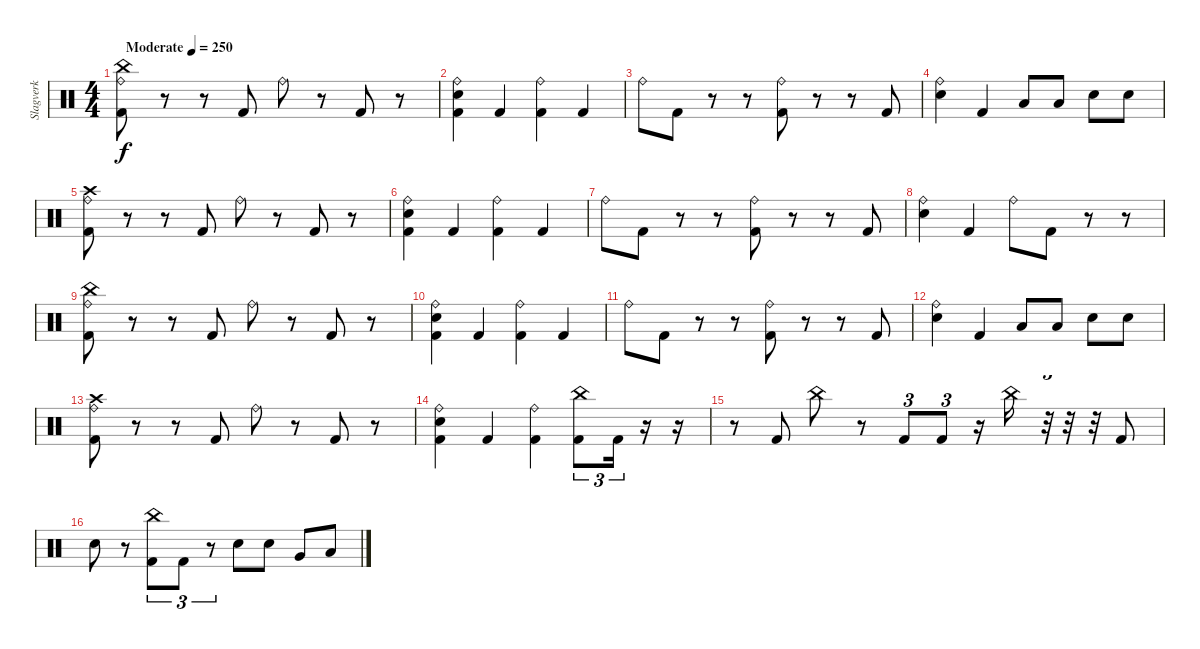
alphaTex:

\track ("Slagverk" "Slagverk") {instrument percussion}
\staff {score}
\articulation defaults
\ts (4 4)
\tempo (250 "Moderate")
\clef neutral
\ks c
("China (hit)" "Ride (bell)" "Kick (hit) 2").8{dy f} r.8 r.8 "Kick (hit) 2".8 "Ride (bell)".8 r.8 "Kick (hit) 2".8 r.8 |
("Ride (bell)" "Electric Snare (hit)" "Kick (hit) 2").4 "Kick (hit) 2".4 ("Ride (bell)" "Kick (hit) 2").4 "Kick (hit) 2".4 |
"Ride (bell)".8 "Kick (hit) 2".8 r.8 r.8 ("Ride (bell)" "Kick (hit) 2").8 r.8 r.8 "Kick (hit) 2".8 |
("Ride (bell)" "Electric Snare (hit)").4 "Kick (hit) 2".4 "Low Floor Tom (hit)".8 "Low Floor Tom (hit)".8 "Electric Snare (hit)".8 "Electric Snare (hit)".8 |
("Crash high (hit)" "Ride (bell)" "Kick (hit) 2").8 r.8 r.8 "Kick (hit) 2".8 "Ride (bell)".8 r.8 "Kick (hit) 2".8 r.8 |
("Ride (bell)" "Electric Snare (hit)" "Kick (hit) 2").4 "Kick (hit) 2".4 ("Ride (bell)" "Kick (hit) 2").4 "Kick (hit) 2".4 |
"Ride (bell)".8 "Kick (hit) 2".8 r.8 r.8 ("Ride (bell)" "Kick (hit) 2").8 r.8 r.8 "Kick (hit) 2".8 |
("Ride (bell)" "Electric Snare (hit)").4 "Kick (hit) 2".4 "Ride (bell)".8 "Kick (hit) 2".8 r.8 r.8 |
("China (hit)" "Ride (bell)" "Kick (hit) 2").8 r.8 r.8 "Kick (hit) 2".8 "Ride (bell)".8 r.8 "Kick (hit) 2".8 r.8 |
("Ride (bell)" "Electric Snare (hit)" "Kick (hit) 2").4 "Kick (hit) 2".4 ("Ride (bell)" "Kick (hit) 2").4 "Kick (hit) 2".4 |
"Ride (bell)".8 "Kick (hit) 2".8 r.8 r.8 ("Ride (bell)" "Kick (hit) 2").8 r.8 r.8 "Kick (hit) 2".8 |
("Ride (bell)" "Electric Snare (hit)").4 "Kick (hit) 2".4 "Low Floor Tom (hit)".8 "Low Floor Tom (hit)".8 "Electric Snare (hit)".8 "Electric Snare (hit)".8 |
("Crash high (hit)" "Ride (bell)" "Kick (hit) 2").8 r.8 r.8 "Kick (hit) 2".8 "Ride (bell)".8 r.8 "Kick (hit) 2".8 r.8 |
("Ride (bell)" "Electric Snare (hit)" "Kick (hit) 2").4 "Kick (hit) 2".4 ("Ride (bell)" "Kick (hit) 2").4 ("China (hit)" "Kick (hit) 2").8{tu (3 2)} "Kick (hit) 2".16{tu (3 2)} r.16 r.16 |
r.8 "Kick (hit) 2".8 "China (hit)".8 r.8 "Kick (hit) 2".8{tu (3 2)} "Kick (hit) 2".8{tu (3 2)} r.16 "China (hit)".16 r.32{tu (3 2)} r.32 r.32 "Kick (hit) 2".8 |
"Electric Snare (hit)".8 r.8 ("China (hit)" "Kick (hit) 2").8{tu (3 2)} "Kick (hit) 2".8{tu (3 2)} r.8{tu (3 2)} "Electric Snare (hit)".8 "Electric Snare (hit)".8 "Very Low Tom (hit)".8 "Low Floor Tom (hit)".8
